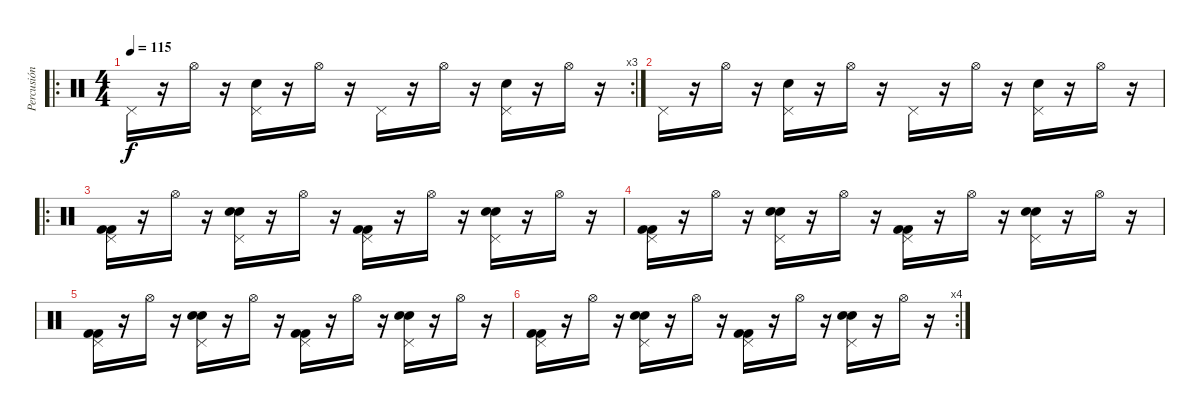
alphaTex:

\track ("Percusión" "Percusión") {instrument percussion}
\staff {score}
\articulation defaults
\ro
\rc 3
\ts (4 4)
\tempo 115
\clef neutral
\ks c "Pedal Hi-Hat (hit)".16{dy f}
r.16 "Hi-Hat (open)".16 r.16 ("Pedal Hi-Hat (hit)" "Hand Clap (hit)").16 r.16 "Hi-Hat (open)".16 r.16 "Pedal Hi-Hat (hit)".16 r.16 "Hi-Hat (open)".16 r.16 ("Pedal Hi-Hat (hit)" "Hand Clap (hit)").16 r.16 "Hi-Hat (open)".16 r.16 |
"Pedal Hi-Hat (hit)".16 r.16 "Hi-Hat (open)".16 r.16 ("Pedal Hi-Hat (hit)" "Hand Clap (hit)").16 r.16 "Hi-Hat (open)".16 r.16 "Pedal Hi-Hat (hit)".16 r.16 "Hi-Hat (open)".16 r.16 ("Pedal Hi-Hat (hit)" "Hand Clap (hit)").16 r.16 "Hi-Hat (open)".16 r.16 |
\ro
("Pedal Hi-Hat (hit)" "Kick (hit) 2" "Kick (hit) 2").16 r.16 "Hi-Hat (open)".16 r.16 ("Pedal Hi-Hat (hit)" "Hand Clap (hit)" "Hand Clap (hit)").16 r.16 "Hi-Hat (open)".16 r.16 ("Pedal Hi-Hat (hit)" "Kick (hit) 2" "Kick (hit) 2").16 r.16 "Hi-Hat (open)".16 r.16 ("Pedal Hi-Hat (hit)" "Hand Clap (hit)" "Hand Clap (hit)").16 r.16 "Hi-Hat (open)".16 r.16 |
("Pedal Hi-Hat (hit)" "Kick (hit) 2" "Kick (hit) 2").16 r.16 "Hi-Hat (open)".16 r.16 ("Pedal Hi-Hat (hit)" "Hand Clap (hit)" "Hand Clap (hit)").16 r.16 "Hi-Hat (open)".16 r.16 ("Pedal Hi-Hat (hit)" "Kick (hit) 2" "Kick (hit) 2").16 r.16 "Hi-Hat (open)".16 r.16 ("Pedal Hi-Hat (hit)" "Hand Clap (hit)" "Hand Clap (hit)").16 r.16 "Hi-Hat (open)".16 r.16 |
("Pedal Hi-Hat (hit)" "Kick (hit) 2" "Kick (hit) 2").16 r.16 "Hi-Hat (open)".16 r.16 ("Pedal Hi-Hat (hit)" "Hand Clap (hit)" "Hand Clap (hit)").16 r.16 "Hi-Hat (open)".16 r.16 ("Pedal Hi-Hat (hit)" "Kick (hit) 2" "Kick (hit) 2").16 r.16 "Hi-Hat (open)".16 r.16 ("Pedal Hi-Hat (hit)" "Hand Clap (hit)" "Hand Clap (hit)").16 r.16 "Hi-Hat (open)".16 r.16 |
\rc 4
("Pedal Hi-Hat (hit)" "Kick (hit) 2" "Kick (hit) 2").16 r.16 "Hi-Hat (open)".16 r.16 ("Pedal Hi-Hat (hit)" "Hand Clap (hit)" "Hand Clap (hit)").16 r.16 "Hi-Hat (open)".16 r.16 ("Pedal Hi-Hat (hit)" "Kick (hit) 2" "Kick (hit) 2").16 r.16 "Hi-Hat (open)".16 r.16 ("Pedal Hi-Hat (hit)" "Hand Clap (hit)" "Hand Clap (hit)").16 r.16 "Hi-Hat (open)".16 r.16
